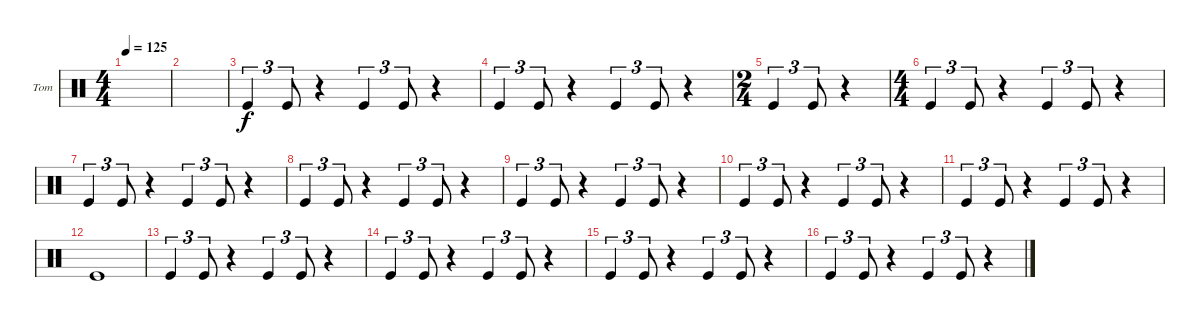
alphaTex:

\defaultSystemsLayout 4
\bracketExtendMode groupsimilarinstruments
\firstSystemTrackNameOrientation horizontal
\otherSystemsTrackNameOrientation horizontal
\track ("Melodic Tom" "Tom") {instrument percussion}
\staff {score}
\articulation defaults
\ts (4 4)
\tempo 125
\clef neutral
\scale
0.333333
\ks c
|
\scale
0.333333 |
\scale
0.262911 "Kick (hit)".4{tu (3 2)} "Kick (hit)".8{tu (3 2)} r.4 "Kick (hit)".4{tu (3 2)} "Kick (hit)".8{tu (3 2)} r.4 |
\scale
0.262911 "Kick (hit)".4{tu (3 2)} "Kick (hit)".8{tu (3 2)} r.4 "Kick (hit)".4{tu (3 2)} "Kick (hit)".8{tu (3 2)} r.4 |
\ts (2 4)
\scale
0.474178 "Kick (hit)".4{tu (3 2)} "Kick (hit)".8{tu (3 2)} r.4 |
\ts (4 4)
\scale
0.474178 "Kick (hit)".4{tu (3 2)} "Kick (hit)".8{tu (3 2)} r.4 "Kick (hit)".4{tu (3 2)} "Kick (hit)".8{tu (3 2)} r.4 |
\scale
0.262911 "Kick (hit)".4{tu (3 2)} "Kick (hit)".8{tu (3 2)} r.4 "Kick (hit)".4{tu (3 2)} "Kick (hit)".8{tu (3 2)} r.4 |
\scale
0.262911 "Kick (hit)".4{tu (3 2)} "Kick (hit)".8{tu (3 2)} r.4 "Kick (hit)".4{tu (3 2)} "Kick (hit)".8{tu (3 2)} r.4 |
\scale
0.333333 "Kick (hit)".4{tu (3 2)} "Kick (hit)".8{tu (3 2)} r.4 "Kick (hit)".4{tu (3 2)} "Kick (hit)".8{tu (3 2)} r.4 |
\scale
0.333333 "Kick (hit)".4{tu (3 2)} "Kick (hit)".8{tu (3 2)} r.4 "Kick (hit)".4{tu (3 2)} "Kick (hit)".8{tu (3 2)} r.4 |
\scale
0.333333 "Kick (hit)".4{tu (3 2)} "Kick (hit)".8{tu (3 2)} r.4 "Kick (hit)".4{tu (3 2)} "Kick (hit)".8{tu (3 2)} r.4 |
\scale
0.333333 "Kick (hit)".1 |
\scale
0.333333 "Kick (hit)".4{tu (3 2)} "Kick (hit)".8{tu (3 2)} r.4 "Kick (hit)".4{tu (3 2)} "Kick (hit)".8{tu (3 2)} r.4 |
\scale
0.333333 "Kick (hit)".4{tu (3 2)} "Kick (hit)".8{tu (3 2)} r.4 "Kick (hit)".4{tu (3 2)} "Kick (hit)".8{tu (3 2)} r.4 |
\scale
0.333333 "Kick (hit)".4{tu (3 2)} "Kick (hit)".8{tu (3 2)} r.4 "Kick (hit)".4{tu (3 2)} "Kick (hit)".8{tu (3 2)} r.4 |
\scale
0.333333 "Kick (hit)".4{tu (3 2)} "Kick (hit)".8{tu (3 2)} r.4 "Kick (hit)".4{tu (3 2)} "Kick (hit)".8{tu (3 2)} r.4
